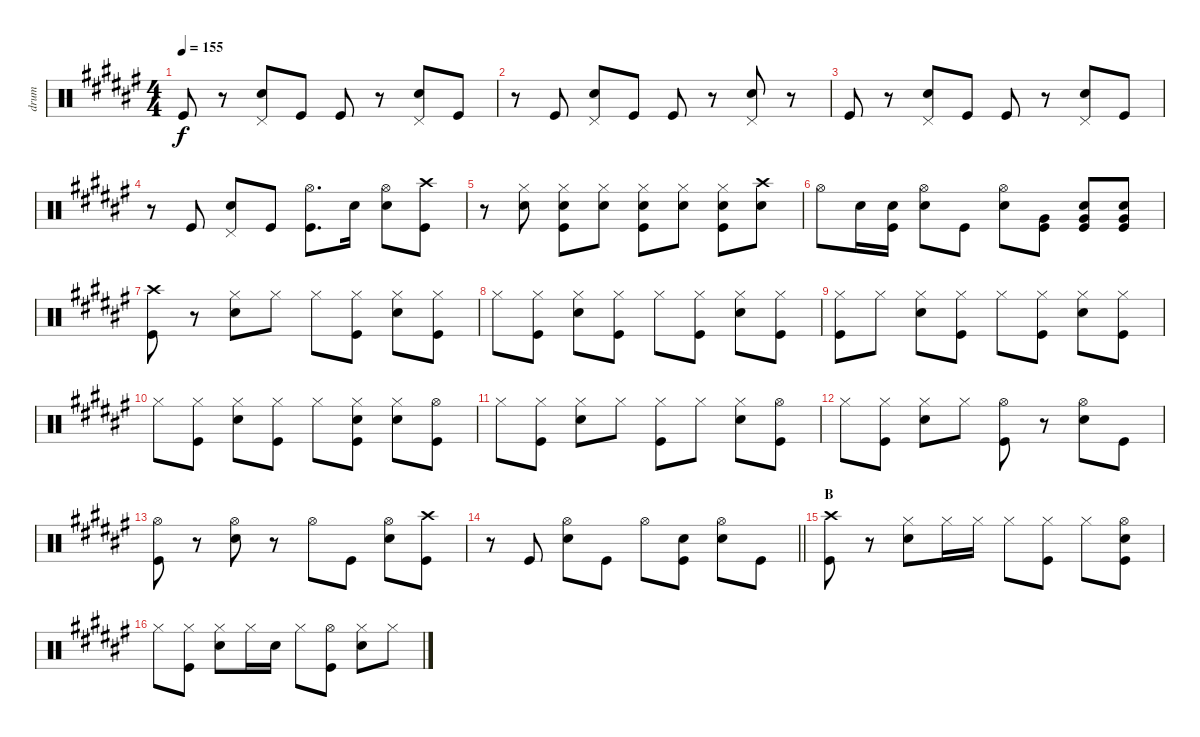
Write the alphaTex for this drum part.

\track ("drum" "drum") {instrument percussion}
\staff {score}
\articulation defaults
\ts (4 4)
\tempo 155
\clef neutral
\ks f# "Kick (hit)".8{dy f}
r.8 ("Hand Clap (hit)" "Pedal Hi-Hat (hit)").8 "Kick (hit)".8 "Kick (hit)".8 r.8 ("Hand Clap (hit)" "Pedal Hi-Hat (hit)").8 "Kick (hit)".8 |
r.8 "Kick (hit)".8 ("Hand Clap (hit)" "Pedal Hi-Hat (hit)").8 "Kick (hit)".8 "Kick (hit)".8 r.8 ("Hand Clap (hit)" "Pedal Hi-Hat (hit)").8 r.8 |
"Kick (hit)".8 r.8 ("Hand Clap (hit)" "Pedal Hi-Hat (hit)").8 "Kick (hit)".8 "Kick (hit)".8 r.8 ("Hand Clap (hit)" "Pedal Hi-Hat (hit)").8 "Kick (hit)".8 |
r.8 "Kick (hit)".8 ("Hand Clap (hit)" "Pedal Hi-Hat (hit)").8 "Kick (hit)".8 ("Hi-Hat (open)" "Kick (hit)").8{d} "Snare (hit) 2".16 ("Hi-Hat (open)" "Snare (hit) 2").8 ("Crash high (hit)" "Kick (hit)").8 |
r.8 ("Hi-Hat (closed)" "Snare (hit) 2").8 ("Hi-Hat (closed)" "Snare (hit) 2" "Kick (hit)").8 ("Hi-Hat (closed)" "Snare (hit) 2").8 ("Hi-Hat (closed)" "Snare (hit) 2" "Kick (hit)").8 ("Hi-Hat (closed)" "Snare (hit) 2").8 ("Hi-Hat (closed)" "Snare (hit) 2" "Kick (hit)").8 ("Crash high (hit)" "Snare (hit) 2").8 |
"Hi-Hat (open)".8 "Snare (hit) 2".16 ("Snare (hit) 2" "Kick (hit)").16 ("Hi-Hat (open)" "Snare (hit) 2").8 "Kick (hit)".8 ("Hi-Hat (open)" "Snare (hit) 2").8 ("Very Low Tom (hit)" "Kick (hit)").8 ("Snare (hit) 2" "Very Low Tom (hit)" "Kick (hit)").8 ("Snare (hit) 2" "Very Low Tom (hit)" "Kick (hit)").8 |
("Crash high (hit)" "Kick (hit)").8 r.8 ("Hi-Hat (closed)" "Snare (hit) 2").8 "Hi-Hat (closed)".8 "Hi-Hat (closed)".8 ("Hi-Hat (closed)" "Kick (hit)").8 ("Hi-Hat (closed)" "Snare (hit) 2").8 ("Hi-Hat (closed)" "Kick (hit)").8 |
"Hi-Hat (closed)".8 ("Hi-Hat (closed)" "Kick (hit)").8 ("Hi-Hat (closed)" "Snare (hit) 2").8 ("Hi-Hat (closed)" "Kick (hit)").8 "Hi-Hat (closed)".8 ("Hi-Hat (closed)" "Kick (hit)").8 ("Hi-Hat (closed)" "Snare (hit) 2").8 ("Hi-Hat (closed)" "Kick (hit)").8 |
("Hi-Hat (closed)" "Kick (hit)").8 "Hi-Hat (closed)".8 ("Hi-Hat (closed)" "Snare (hit) 2").8 ("Hi-Hat (closed)" "Kick (hit)").8 "Hi-Hat (closed)".8 ("Hi-Hat (closed)" "Kick (hit)").8 ("Hi-Hat (closed)" "Snare (hit) 2").8 ("Hi-Hat (closed)" "Kick (hit)").8 |
"Hi-Hat (closed)".8 ("Hi-Hat (closed)" "Kick (hit)").8 ("Hi-Hat (closed)" "Snare (hit) 2").8 ("Hi-Hat (closed)" "Kick (hit)").8 "Hi-Hat (closed)".8 ("Hi-Hat (closed)" "Snare (hit) 2" "Kick (hit)").8 ("Hi-Hat (closed)" "Snare (hit) 2").8 ("Hi-Hat (open)" "Kick (hit)").8 |
"Hi-Hat (closed)".8 ("Hi-Hat (closed)" "Kick (hit)").8 ("Hi-Hat (closed)" "Snare (hit) 2").8 "Hi-Hat (closed)".8 ("Hi-Hat (closed)" "Kick (hit)").8 "Hi-Hat (closed)".8 ("Hi-Hat (closed)" "Snare (hit) 2").8 ("Hi-Hat (open)" "Kick (hit)").8 |
"Hi-Hat (closed)".8 ("Hi-Hat (closed)" "Kick (hit)").8 ("Hi-Hat (closed)" "Snare (hit) 2").8 "Hi-Hat (closed)".8 ("Hi-Hat (open)" "Kick (hit)").8 r.8 ("Hi-Hat (open)" "Snare (hit) 2").8 "Kick (hit)".8 |
("Hi-Hat (open)" "Kick (hit)").8 r.8 ("Hi-Hat (open)" "Snare (hit) 2").8 r.8 "Hi-Hat (open)".8 "Kick (hit)".8 ("Hi-Hat (open)" "Snare (hit) 2").8 ("Crash high (hit)" "Kick (hit)").8 |
\barLineRight lightlight
r.8 "Kick (hit)".8 ("Hi-Hat (open)" "Snare (hit) 2").8 "Kick (hit)".8 "Hi-Hat (open)".8 ("Snare (hit) 2" "Kick (hit)").8 ("Hi-Hat (open)" "Snare (hit) 2").8 "Kick (hit)".8 |
\section ("" "B")
("Crash high (hit)" "Kick (hit)").8 r.8 ("Hi-Hat (closed)" "Snare (hit) 2").8 "Hi-Hat (closed)".16 "Hi-Hat (closed)".16 "Hi-Hat (closed)".8 ("Hi-Hat (closed)" "Kick (hit)").8 "Hi-Hat (closed)".8 ("Hi-Hat (open)" "Snare (hit) 2" "Kick (hit)").8 |
"Hi-Hat (closed)".8 ("Hi-Hat (closed)" "Kick (hit)").8 ("Hi-Hat (closed)" "Snare (hit) 2").8 "Hi-Hat (closed)".16 "Snare (hit) 2".16 "Hi-Hat (closed)".8 ("Hi-Hat (open)" "Kick (hit)").8 ("Hi-Hat (closed)" "Snare (hit) 2").8 "Hi-Hat (closed)".8
